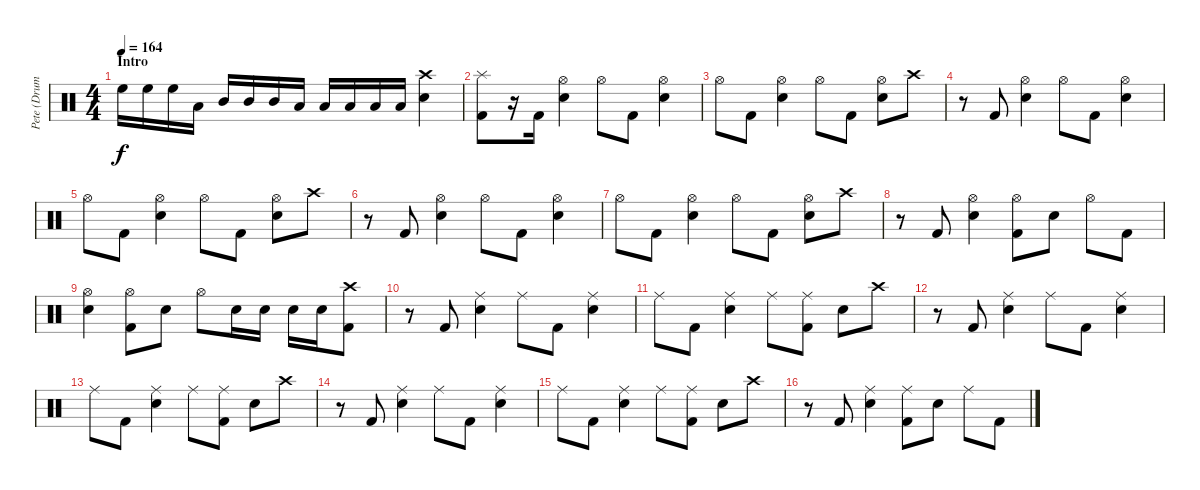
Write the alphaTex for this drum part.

\track ("Pete (Drums)" "Pete (Drum") {instrument percussion}
\staff {score}
\articulation defaults
\ts (4 4)
\section ("" "Intro")
\tempo 164
\clef neutral
\ks c "High Floor Tom (hit)".16{dy f} "High Floor Tom (hit)".16 "High Floor Tom (hit)".16 "Low Floor Tom (hit)".16 "Mid Tom (hit)".16 "Mid Tom (hit)".16 "Mid Tom (hit)".16 "Low Floor Tom (hit)".16 "Low Tom (hit)".16 "Low Tom (hit)".16 "Low Tom (hit)".16 "Low Floor Tom (hit)".16
("Crash high (hit)" "Snare (hit) 2").4 |
("Splash (hit)" "Kick (hit) 2").8 r.16 "Kick (hit) 2".16 ("Hi-Hat (open)" "Snare (hit) 2").4 "Hi-Hat (open)".8 "Kick (hit) 2".8 ("Hi-Hat (open)" "Snare (hit) 2").4 |
"Hi-Hat (open)".8 "Kick (hit) 2".8 ("Hi-Hat (open)" "Snare (hit) 2").4 "Hi-Hat (open)".8 "Kick (hit) 2".8 ("Hi-Hat (open)" "Snare (hit) 2").8 "Crash high (hit)".8 |
r.8 "Kick (hit) 2".8 ("Hi-Hat (open)" "Snare (hit) 2").4 "Hi-Hat (open)".8 "Kick (hit) 2".8 ("Hi-Hat (open)" "Snare (hit) 2").4 |
"Hi-Hat (open)".8 "Kick (hit) 2".8 ("Hi-Hat (open)" "Snare (hit) 2").4 "Hi-Hat (open)".8 "Kick (hit) 2".8 ("Hi-Hat (open)" "Snare (hit) 2").8 "Crash high (hit)".8 |
r.8 "Kick (hit) 2".8 ("Hi-Hat (open)" "Snare (hit) 2").4 "Hi-Hat (open)".8 "Kick (hit) 2".8 ("Hi-Hat (open)" "Snare (hit) 2").4 |
"Hi-Hat (open)".8 "Kick (hit) 2".8 ("Hi-Hat (open)" "Snare (hit) 2").4 "Hi-Hat (open)".8 "Kick (hit) 2".8 ("Hi-Hat (open)" "Snare (hit) 2").8 "Crash high (hit)".8 |
r.8 "Kick (hit) 2".8 ("Hi-Hat (open)" "Snare (hit) 2").4 ("Hi-Hat (open)" "Kick (hit) 2").8 "Snare (hit) 2".8 "Hi-Hat (open)".8 "Kick (hit) 2".8 |
("Hi-Hat (open)" "Snare (hit) 2").4 ("Hi-Hat (open)" "Kick (hit) 2").8 "Snare (hit) 2".8 "Hi-Hat (open)".8 "Snare (hit) 2".16 "Snare (hit) 2".16 "Snare (hit) 2".16 "Snare (hit) 2".16 ("Crash high (hit)" "Kick (hit) 2").8 |
r.8 "Kick (hit) 2".8 ("Ride (middle)" "Snare (hit) 2").4 "Ride (middle)".8 "Kick (hit) 2".8 ("Ride (middle)" "Snare (hit) 2").4 |
"Ride (middle)".8 "Kick (hit) 2".8 ("Ride (middle)" "Snare (hit) 2").4 "Ride (middle)".8 ("Ride (middle)" "Kick (hit) 2").8 "Snare (hit) 2".8 "Crash high (hit)".8 |
r.8 "Kick (hit) 2".8 ("Ride (middle)" "Snare (hit) 2").4 "Ride (middle)".8 "Kick (hit) 2".8 ("Ride (middle)" "Snare (hit) 2").4 |
"Ride (middle)".8 "Kick (hit) 2".8 ("Ride (middle)" "Snare (hit) 2").4 "Ride (middle)".8 ("Ride (middle)" "Kick (hit) 2").8 "Snare (hit) 2".8 "Crash high (hit)".8 |
r.8 "Kick (hit) 2".8 ("Ride (middle)" "Snare (hit) 2").4 "Ride (middle)".8 "Kick (hit) 2".8 ("Ride (middle)" "Snare (hit) 2").4 |
"Ride (middle)".8 "Kick (hit) 2".8 ("Ride (middle)" "Snare (hit) 2").4 "Ride (middle)".8 ("Ride (middle)" "Kick (hit) 2").8 "Snare (hit) 2".8 "Crash high (hit)".8 |
r.8 "Kick (hit) 2".8 ("Ride (middle)" "Snare (hit) 2").4 ("Ride (middle)" "Kick (hit) 2").8 "Snare (hit) 2".8 "Ride (middle)".8 "Kick (hit) 2".8
